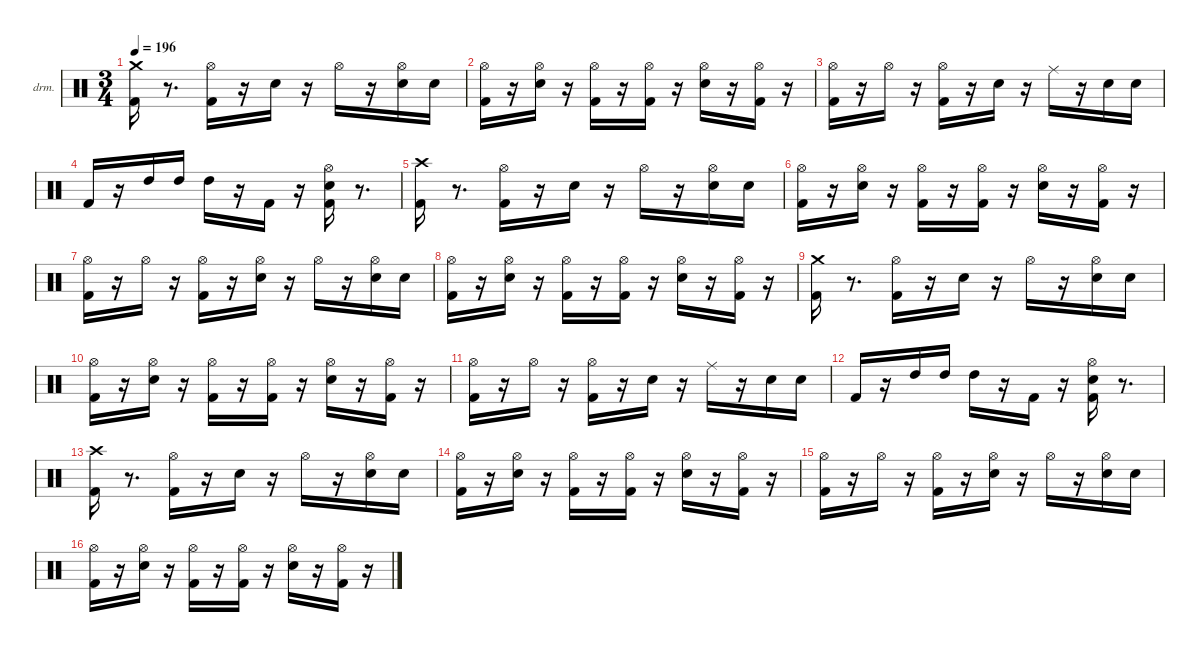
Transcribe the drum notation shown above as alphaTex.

\hideDynamics
\bracketExtendMode nobrackets
\firstSystemTrackNameOrientation horizontal
\otherSystemsTrackNameOrientation horizontal
\track ("EZdrummer 3" "drm.") {instrument percussion}
\staff {score}
\articulation defaults
\ts (3 4)
\tempo 196
\clef neutral
\ks aminor
("Kick (hit) 2" "Crash medium (hit)").16{dy fff beam Down} r.8{d beam Down} ("Kick (hit) 2" "Hi-Hat (open)"{acc #}).16{dy f beam Down} r.16{beam Down} "Snare (hit) 2".16{dy ff beam Down} r.16{beam Down} "Hi-Hat (open)"{acc #}.16{dy f beam Down} r.16{beam Down} ("Snare (hit) 2" "Hi-Hat (open)"{acc #}).16{beam Down} "Snare (hit) 2".16{dy mp beam Down} |
("Kick (hit) 2" "Hi-Hat (open)"{acc #}).16{dy fff beam Down} r.16{beam Down} ("Snare (hit) 2" "Hi-Hat (open)"{acc #}).16{dy ff beam Down} r.16{beam Down} ("Kick (hit) 2" "Hi-Hat (open)"{acc #}).16{dy mf beam Down} r.16{beam Down} ("Kick (hit) 2" "Hi-Hat (open)"{acc #}).16{dy fff beam Down} r.16{beam Down} ("Snare (hit) 2" "Hi-Hat (open)"{acc #}).16{dy ff beam Down} r.16{beam Down} ("Kick (hit) 2" "Hi-Hat (open)"{acc #}).16{dy mp beam Down} r.16{beam Down} |
("Kick (hit) 2" "Hi-Hat (open)"{acc #}).16{dy fff beam Down} r.16{beam Down} "Hi-Hat (open)"{acc #}.16{dy pp beam Down} r.16{beam Down} ("Kick (hit) 2" "Hi-Hat (open)"{acc #}).16{dy f beam Down} r.16{beam Down} "Snare (hit) 2".16{dy ff beam Down} r.16{beam Down} "Ride (middle)"{acc #}.16{beam Down} r.16{beam Down} "Snare (hit) 2".16{dy f beam Down} "Snare (hit) 2".16{dy mp beam Down} |
"Kick (hit) 2".16{dy fff beam Up} r.16{beam Up} "High Tom (hit)".16{dy ff beam Down} "High Tom (hit)".16{dy mf beam Down} "High Tom (hit)".16{dy fff beam Down} r.16{beam Down} "Kick (hit) 2".16{dy f beam Up} r.16{beam Up} ("Kick (hit) 2" "Snare (hit) 2" "Hi-Hat (open)"{acc #}).16{dy fff beam Down} r.8{d beam Down} |
("Kick (hit) 2" "Crash high (hit)"{acc #}).16{beam Down} r.8{d beam Down} ("Kick (hit) 2" "Hi-Hat (open)"{acc #}).16{dy f beam Down} r.16{beam Down} "Snare (hit) 2".16{dy ff beam Down} r.16{beam Down} "Hi-Hat (open)"{acc #}.16{dy f beam Down} r.16{beam Down} ("Snare (hit) 2" "Hi-Hat (open)"{acc #}).16{beam Down} "Snare (hit) 2".16{dy mp beam Down} |
("Kick (hit) 2" "Hi-Hat (open)"{acc #}).16{dy fff beam Down} r.16{beam Down} ("Snare (hit) 2" "Hi-Hat (open)"{acc #}).16{dy ff beam Down} r.16{beam Down} ("Kick (hit) 2" "Hi-Hat (open)"{acc #}).16{dy mf beam Down} r.16{beam Down} ("Kick (hit) 2" "Hi-Hat (open)"{acc #}).16{dy fff beam Down} r.16{beam Down} ("Snare (hit) 2" "Hi-Hat (open)"{acc #}).16{dy ff beam Down} r.16{beam Down} ("Kick (hit) 2" "Hi-Hat (open)"{acc #}).16{dy mp beam Down} r.16{beam Down} |
("Kick (hit) 2" "Hi-Hat (open)"{acc #}).16{dy fff beam Down} r.16{beam Down} "Hi-Hat (open)"{acc #}.16{dy pp beam Down} r.16{beam Down} ("Kick (hit) 2" "Hi-Hat (open)"{acc #}).16{dy f beam Down} r.16{beam Down} ("Snare (hit) 2" "Hi-Hat (open)"{acc #}).16{dy ff beam Down} r.16{beam Down} "Hi-Hat (open)"{acc #}.16{dy f beam Down} r.16{beam Down} ("Snare (hit) 2" "Hi-Hat (open)"{acc #}).16{beam Down} "Snare (hit) 2".16{dy mp beam Down} |
("Kick (hit) 2" "Hi-Hat (open)"{acc #}).16{dy fff beam Down} r.16{beam Down} ("Snare (hit) 2" "Hi-Hat (open)"{acc #}).16{dy ff beam Down} r.16{beam Down} ("Kick (hit) 2" "Hi-Hat (open)"{acc #}).16{dy mf beam Down} r.16{beam Down} ("Kick (hit) 2" "Hi-Hat (open)"{acc #}).16{dy fff beam Down} r.16{beam Down} ("Snare (hit) 2" "Hi-Hat (open)"{acc #}).16{dy ff beam Down} r.16{beam Down} ("Kick (hit) 2" "Hi-Hat (open)"{acc #}).16{dy mp beam Down} r.16{beam Down} |
("Kick (hit) 2" "Crash medium (hit)").16{dy fff beam Down} r.8{d beam Down} ("Kick (hit) 2" "Hi-Hat (open)"{acc #}).16{dy f beam Down} r.16{beam Down} "Snare (hit) 2".16{dy ff beam Down} r.16{beam Down} "Hi-Hat (open)"{acc #}.16{dy f beam Down} r.16{beam Down} ("Snare (hit) 2" "Hi-Hat (open)"{acc #}).16{beam Down} "Snare (hit) 2".16{dy mp beam Down} |
("Kick (hit) 2" "Hi-Hat (open)"{acc #}).16{dy fff beam Down} r.16{beam Down} ("Snare (hit) 2" "Hi-Hat (open)"{acc #}).16{dy ff beam Down} r.16{beam Down} ("Kick (hit) 2" "Hi-Hat (open)"{acc #}).16{dy mf beam Down} r.16{beam Down} ("Kick (hit) 2" "Hi-Hat (open)"{acc #}).16{dy fff beam Down} r.16{beam Down} ("Snare (hit) 2" "Hi-Hat (open)"{acc #}).16{dy ff beam Down} r.16{beam Down} ("Kick (hit) 2" "Hi-Hat (open)"{acc #}).16{dy mp beam Down} r.16{beam Down} |
("Kick (hit) 2" "Hi-Hat (open)"{acc #}).16{dy fff beam Down} r.16{beam Down} "Hi-Hat (open)"{acc #}.16{dy pp beam Down} r.16{beam Down} ("Kick (hit) 2" "Hi-Hat (open)"{acc #}).16{dy f beam Down} r.16{beam Down} "Snare (hit) 2".16{dy ff beam Down} r.16{beam Down} "Ride (middle)"{acc #}.16{beam Down} r.16{beam Down} "Snare (hit) 2".16{dy f beam Down} "Snare (hit) 2".16{dy mp beam Down} |
"Kick (hit) 2".16{dy fff beam Up} r.16{beam Up} "High Tom (hit)".16{dy ff beam Down} "High Tom (hit)".16{dy mf beam Down} "High Tom (hit)".16{dy fff beam Down} r.16{beam Down} "Kick (hit) 2".16{dy f beam Up} r.16{beam Up} ("Kick (hit) 2" "Snare (hit) 2" "Hi-Hat (open)"{acc #}).16{dy fff beam Down} r.8{d beam Down} |
("Kick (hit) 2" "Crash high (hit)"{acc #}).16{beam Down} r.8{d beam Down} ("Kick (hit) 2" "Hi-Hat (open)"{acc #}).16{dy f beam Down} r.16{beam Down} "Snare (hit) 2".16{dy ff beam Down} r.16{beam Down} "Hi-Hat (open)"{acc #}.16{dy f beam Down} r.16{beam Down} ("Snare (hit) 2" "Hi-Hat (open)"{acc #}).16{beam Down} "Snare (hit) 2".16{dy mp beam Down} |
("Kick (hit) 2" "Hi-Hat (open)"{acc #}).16{dy fff beam Down} r.16{beam Down} ("Snare (hit) 2" "Hi-Hat (open)"{acc #}).16{dy ff beam Down} r.16{beam Down} ("Kick (hit) 2" "Hi-Hat (open)"{acc #}).16{dy mf beam Down} r.16{beam Down} ("Kick (hit) 2" "Hi-Hat (open)"{acc #}).16{dy fff beam Down} r.16{beam Down} ("Snare (hit) 2" "Hi-Hat (open)"{acc #}).16{dy ff beam Down} r.16{beam Down} ("Kick (hit) 2" "Hi-Hat (open)"{acc #}).16{dy mp beam Down} r.16{beam Down} |
("Kick (hit) 2" "Hi-Hat (open)"{acc #}).16{dy fff beam Down} r.16{beam Down} "Hi-Hat (open)"{acc #}.16{dy pp beam Down} r.16{beam Down} ("Kick (hit) 2" "Hi-Hat (open)"{acc #}).16{dy f beam Down} r.16{beam Down} ("Snare (hit) 2" "Hi-Hat (open)"{acc #}).16{dy ff beam Down} r.16{beam Down} "Hi-Hat (open)"{acc #}.16{dy f beam Down} r.16{beam Down} ("Snare (hit) 2" "Hi-Hat (open)"{acc #}).16{beam Down} "Snare (hit) 2".16{dy mp beam Down} |
("Kick (hit) 2" "Hi-Hat (open)"{acc #}).16{dy fff beam Down} r.16{beam Down} ("Snare (hit) 2" "Hi-Hat (open)"{acc #}).16{dy ff beam Down} r.16{beam Down} ("Kick (hit) 2" "Hi-Hat (open)"{acc #}).16{dy mf beam Down} r.16{beam Down} ("Kick (hit) 2" "Hi-Hat (open)"{acc #}).16{dy fff beam Down} r.16{beam Down} ("Snare (hit) 2" "Hi-Hat (open)"{acc #}).16{dy ff beam Down} r.16{beam Down} ("Kick (hit) 2" "Hi-Hat (open)"{acc #}).16{dy mp beam Down} r.16{beam Down}
